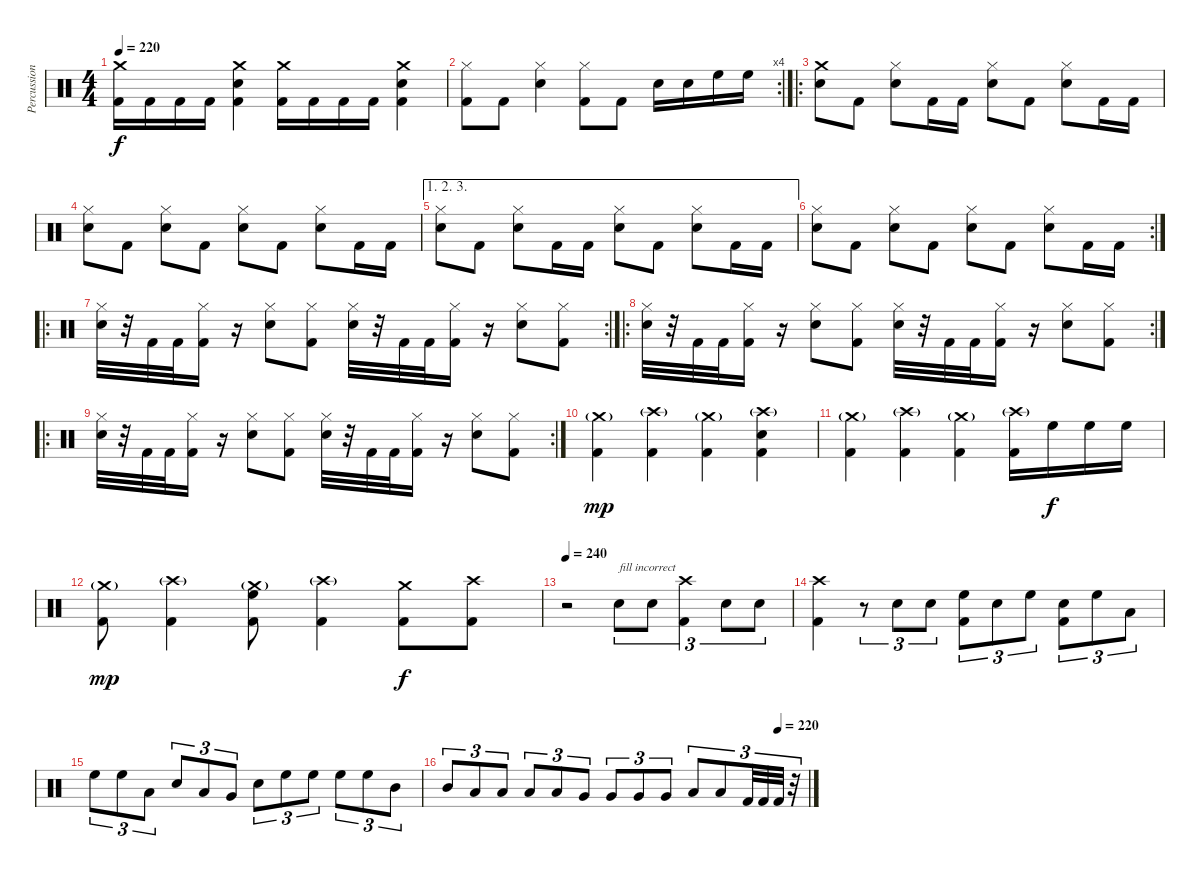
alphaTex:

\track ("Percussion" "Percussion") {instrument percussion}
\staff {score}
\articulation defaults
\ts (4 4)
\tempo 220
\clef neutral
\ks c
("Crash medium (hit)" "Kick (hit) 2").16{dy f} "Kick (hit) 2".16 "Kick (hit) 2".16 "Kick (hit) 2".16 ("Crash medium (hit)" "Electric Snare (hit)" "Kick (hit) 2").4 ("Crash medium (hit)" "Kick (hit) 2").16 "Kick (hit) 2".16 "Kick (hit) 2".16 "Kick (hit) 2".16 ("Crash medium (hit)" "Electric Snare (hit)" "Kick (hit) 2").4 |
\rc 4
("Hi-Hat (closed)" "Kick (hit) 2").8 "Kick (hit) 2".8 ("Hi-Hat (closed)" "Electric Snare (hit)").4 ("Hi-Hat (closed)" "Kick (hit) 2").8 "Kick (hit) 2".8 "Electric Snare (hit)".16 "Electric Snare (hit)".16 "High Floor Tom (hit)".16 "High Floor Tom (hit)".16 |
\ro
("Crash medium (hit)" "Electric Snare (hit)").8 "Kick (hit) 2".8 ("Hi-Hat (closed)" "Electric Snare (hit)").8 "Kick (hit) 2".16 "Kick (hit) 2".16 ("Hi-Hat (closed)" "Electric Snare (hit)").8 "Kick (hit) 2".8 ("Hi-Hat (closed)" "Electric Snare (hit)").8 "Kick (hit) 2".16 "Kick (hit) 2".16 |
("Hi-Hat (closed)" "Electric Snare (hit)").8 "Kick (hit) 2".8 ("Hi-Hat (closed)" "Electric Snare (hit)").8 "Kick (hit) 2".8 ("Hi-Hat (closed)" "Electric Snare (hit)").8 "Kick (hit) 2".8 ("Hi-Hat (closed)" "Electric Snare (hit)").8 "Kick (hit) 2".16 "Kick (hit) 2".16 |
\ae (1 2 3)
("Hi-Hat (closed)" "Electric Snare (hit)").8 "Kick (hit) 2".8 ("Hi-Hat (closed)" "Electric Snare (hit)").8 "Kick (hit) 2".16 "Kick (hit) 2".16 ("Hi-Hat (closed)" "Electric Snare (hit)").8 "Kick (hit) 2".8 ("Hi-Hat (closed)" "Electric Snare (hit)").8 "Kick (hit) 2".16 "Kick (hit) 2".16 |
\rc 2
("Hi-Hat (closed)" "Electric Snare (hit)").8 "Kick (hit) 2".8 ("Hi-Hat (closed)" "Electric Snare (hit)").8 "Kick (hit) 2".8 ("Hi-Hat (closed)" "Electric Snare (hit)").8 "Kick (hit) 2".8 ("Hi-Hat (closed)" "Electric Snare (hit)").8 "Kick (hit) 2".16 "Kick (hit) 2".16 |
\ro
\rc 2
("Hi-Hat (closed)" "Electric Snare (hit)").32 r.32 "Kick (hit) 2".32 "Kick (hit) 2".32 ("Hi-Hat (closed)" "Kick (hit) 2").16 r.16 ("Hi-Hat (closed)" "Electric Snare (hit)").8 ("Hi-Hat (closed)" "Kick (hit) 2").8 ("Hi-Hat (closed)" "Electric Snare (hit)").32 r.32 "Kick (hit) 2".32 "Kick (hit) 2".32 ("Hi-Hat (closed)" "Kick (hit) 2").16 r.16 ("Hi-Hat (closed)" "Electric Snare (hit)").8 ("Hi-Hat (closed)" "Kick (hit) 2").8 |
\ro
\rc 2
("Hi-Hat (closed)" "Electric Snare (hit)").32 r.32 "Kick (hit) 2".32 "Kick (hit) 2".32 ("Hi-Hat (closed)" "Kick (hit) 2").16 r.16 ("Hi-Hat (closed)" "Electric Snare (hit)").8 ("Hi-Hat (closed)" "Kick (hit) 2").8 ("Hi-Hat (closed)" "Electric Snare (hit)").32 r.32 "Kick (hit) 2".32 "Kick (hit) 2".32 ("Hi-Hat (closed)" "Kick (hit) 2").16 r.16 ("Hi-Hat (closed)" "Electric Snare (hit)").8 ("Hi-Hat (closed)" "Kick (hit) 2").8 |
\ro
\rc 2
("Hi-Hat (closed)" "Electric Snare (hit)").32 r.32 "Kick (hit) 2".32 "Kick (hit) 2".32 ("Hi-Hat (closed)" "Kick (hit) 2").16 r.16 ("Hi-Hat (closed)" "Electric Snare (hit)").8 ("Hi-Hat (closed)" "Kick (hit) 2").8 ("Hi-Hat (closed)" "Electric Snare (hit)").32 r.32 "Kick (hit) 2".32 "Kick (hit) 2".32 ("Hi-Hat (closed)" "Kick (hit) 2").16 r.16 ("Hi-Hat (closed)" "Electric Snare (hit)").8 ("Hi-Hat (closed)" "Kick (hit) 2").8 |
("Crash medium (hit)"{g} "Kick (hit) 2").4{dy mp} ("Crash high (hit)"{g} "Kick (hit) 2").4 ("Crash medium (hit)"{g} "Kick (hit) 2").4 ("Crash high (hit)"{g} "Electric Snare (hit)" "Kick (hit) 2").4 |
("Crash medium (hit)"{g} "Kick (hit) 2").4 ("Crash high (hit)"{g} "Kick (hit) 2").4 ("Crash medium (hit)"{g} "Kick (hit) 2").4 ("Crash high (hit)"{g} "Kick (hit) 2").16 "High Floor Tom (hit)".16{dy f} "High Floor Tom (hit)".16 "High Floor Tom (hit)".16 |
("Crash medium (hit)"{g} "Kick (hit) 2").8{dy mp} ("Crash high (hit)"{g} "Kick (hit) 2").4 ("Crash medium (hit)"{g} "High Floor Tom (hit)" "Kick (hit) 2").8 ("Crash high (hit)"{g} "Kick (hit) 2").4 ("Crash medium (hit)" "Kick (hit) 2").8{dy f} ("Crash high (hit)" "Kick (hit) 2").8 |
\tempo 240
r.2 "Electric Snare (hit)".8{tu (3 2) txt "fill incorrect"} "Electric Snare (hit)".8{tu (3 2)} ("Crash high (hit)" "Kick (hit) 2").4{tu (3 2)} "Electric Snare (hit)".8{tu (3 2)} "Electric Snare (hit)".8{tu (3 2)} |
("Crash high (hit)" "Kick (hit) 2").4 r.8{tu (3 2)} "Electric Snare (hit)".8{tu (3 2)} "Electric Snare (hit)".8{tu (3 2)} ("High Floor Tom (hit)" "Kick (hit) 2").8{tu (3 2)} "Electric Snare (hit)".8{tu (3 2)} "High Floor Tom (hit)".8{tu (3 2)} ("Electric Snare (hit)" "Kick (hit) 2").8{tu (3 2)} "High Floor Tom (hit)".8{tu (3 2)} "Low Tom (hit)".8{tu (3 2)} |
"High Floor Tom (hit)".8{tu (3 2)} "High Floor Tom (hit)".8{tu (3 2)} "Low Tom (hit)".8{tu (3 2)} "Electric Snare (hit)".8{tu (3 2)} "Low Tom (hit)".8{tu (3 2)} "Very Low Tom (hit)".8{tu (3 2)} "Electric Snare (hit)".8{tu (3 2)} "High Floor Tom (hit)".8{tu (3 2)} "High Floor Tom (hit)".8{tu (3 2)} "High Floor Tom (hit)".8{tu (3 2)} "High Floor Tom (hit)".8{tu (3 2)} "Mid Tom (hit)".8{tu (3 2)} |
\tempo (220 0.9166666666666666)
"Mid Tom (hit)".8{tu (3 2)} "Low Tom (hit)".8{tu (3 2)} "Low Tom (hit)".8{tu (3 2)} "Low Tom (hit)".8{tu (3 2)} "Low Tom (hit)".8{tu (3 2)} "Very Low Tom (hit)".8{tu (3 2)} "Very Low Tom (hit)".8{tu (3 2)} "Very Low Tom (hit)".8{tu (3 2)} "Very Low Tom (hit)".8{tu (3 2)} "Low Floor Tom (hit)".8{tu (3 2)} "Low Floor Tom (hit)".8{tu (3 2)} "Kick (hit) 2".32{tu (3 2)} "Kick (hit) 2".32{tu (3 2)} "Kick (hit) 2".32{tu (3 2)} r.32{tu (3 2)}
